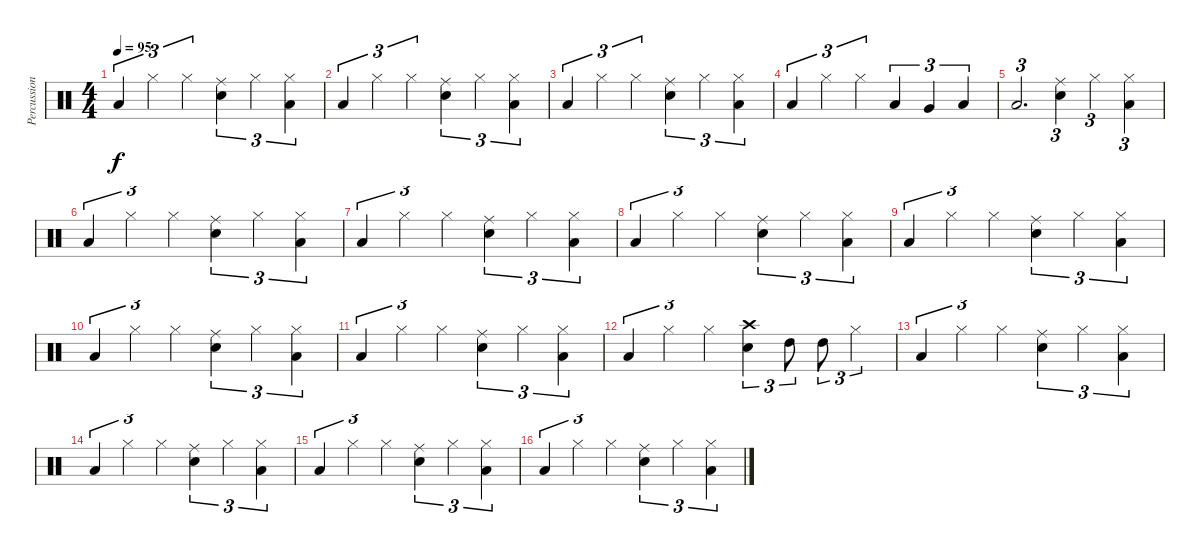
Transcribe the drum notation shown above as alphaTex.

\track ("Percussion" "Percussion") {instrument percussion}
\staff {score}
\articulation defaults
\ts (4 4)
\tempo 95
\clef neutral
\ks c "Low Floor Tom (hit)".4{tu (3 2) dy f} "Hi-Hat (closed)".4{tu (3 2)} "Hi-Hat (closed)".4{tu (3 2)}
("Electric Snare (hit)" "Ride (middle)").4{tu (3 2)} "Hi-Hat (closed)".4{tu (3 2)} ("Hi-Hat (closed)" "Low Floor Tom (hit)").4{tu (3 2)} |
"Low Floor Tom (hit)".4{tu (3 2)} "Hi-Hat (closed)".4{tu (3 2)} "Hi-Hat (closed)".4{tu (3 2)} ("Electric Snare (hit)" "Ride (middle)").4{tu (3 2)} "Hi-Hat (closed)".4{tu (3 2)} ("Hi-Hat (closed)" "Low Floor Tom (hit)").4{tu (3 2)} |
"Low Floor Tom (hit)".4{tu (3 2)} "Hi-Hat (closed)".4{tu (3 2)} "Hi-Hat (closed)".4{tu (3 2)} ("Electric Snare (hit)" "Ride (middle)").4{tu (3 2)} "Hi-Hat (closed)".4{tu (3 2)} ("Hi-Hat (closed)" "Low Floor Tom (hit)").4{tu (3 2)} |
"Low Floor Tom (hit)".4{tu (3 2)} "Hi-Hat (closed)".4{tu (3 2)} "Hi-Hat (closed)".4{tu (3 2)} "Low Tom (hit)".4{tu (3 2)} "Very Low Tom (hit)".4{tu (3 2)} "Low Floor Tom (hit)".4{tu (3 2)} |
"Low Floor Tom (hit)".2{d tu (3 2) volume 2} ("Electric Snare (hit)" "Ride (middle)").4{tu (3 2)} "Hi-Hat (closed)".4{tu (3 2)} ("Hi-Hat (closed)" "Low Floor Tom (hit)").4{tu (3 2)} |
"Low Floor Tom (hit)".4{tu (3 2)} "Hi-Hat (closed)".4{tu (3 2)} "Hi-Hat (closed)".4{tu (3 2)} ("Electric Snare (hit)" "Ride (middle)").4{tu (3 2)} "Hi-Hat (closed)".4{tu (3 2)} ("Hi-Hat (closed)" "Low Floor Tom (hit)").4{tu (3 2)} |
"Low Floor Tom (hit)".4{tu (3 2)} "Hi-Hat (closed)".4{tu (3 2)} "Hi-Hat (closed)".4{tu (3 2)} ("Electric Snare (hit)" "Ride (middle)").4{tu (3 2)} "Hi-Hat (closed)".4{tu (3 2)} ("Hi-Hat (closed)" "Low Floor Tom (hit)").4{tu (3 2)} |
"Low Floor Tom (hit)".4{tu (3 2)} "Hi-Hat (closed)".4{tu (3 2)} "Hi-Hat (closed)".4{tu (3 2)} ("Electric Snare (hit)" "Ride (middle)").4{tu (3 2)} "Hi-Hat (closed)".4{tu (3 2)} ("Hi-Hat (closed)" "Low Floor Tom (hit)").4{tu (3 2)} |
"Low Floor Tom (hit)".4{tu (3 2)} "Hi-Hat (closed)".4{tu (3 2)} "Hi-Hat (closed)".4{tu (3 2)} ("Electric Snare (hit)" "Ride (middle)").4{tu (3 2)} "Hi-Hat (closed)".4{tu (3 2)} ("Hi-Hat (closed)" "Low Floor Tom (hit)").4{tu (3 2)} |
"Low Floor Tom (hit)".4{tu (3 2)} "Hi-Hat (closed)".4{tu (3 2)} "Hi-Hat (closed)".4{tu (3 2)} ("Electric Snare (hit)" "Ride (middle)").4{tu (3 2)} "Hi-Hat (closed)".4{tu (3 2)} ("Hi-Hat (closed)" "Low Floor Tom (hit)").4{tu (3 2)} |
"Low Floor Tom (hit)".4{tu (3 2)} "Hi-Hat (closed)".4{tu (3 2)} "Hi-Hat (closed)".4{tu (3 2)} ("Electric Snare (hit)" "Ride (middle)").4{tu (3 2)} "Hi-Hat (closed)".4{tu (3 2)} ("Hi-Hat (closed)" "Low Floor Tom (hit)").4{tu (3 2)} |
"Low Floor Tom (hit)".4{tu (3 2)} "Hi-Hat (closed)".4{tu (3 2)} "Hi-Hat (closed)".4{tu (3 2)} ("Electric Snare (hit)" "Crash high (hit)").4{tu (3 2)} "High Tom (hit)".8{tu (3 2)} "High Tom (hit)".8{tu (3 2)} "Hi-Hat (closed)".4{tu (3 2)} |
"Low Floor Tom (hit)".4{tu (3 2)} "Hi-Hat (closed)".4{tu (3 2)} "Hi-Hat (closed)".4{tu (3 2)} ("Electric Snare (hit)" "Ride (middle)").4{tu (3 2)} "Hi-Hat (closed)".4{tu (3 2)} ("Hi-Hat (closed)" "Low Floor Tom (hit)").4{tu (3 2)} |
"Low Floor Tom (hit)".4{tu (3 2)} "Hi-Hat (closed)".4{tu (3 2)} "Hi-Hat (closed)".4{tu (3 2)} ("Electric Snare (hit)" "Ride (middle)").4{tu (3 2)} "Hi-Hat (closed)".4{tu (3 2)} ("Hi-Hat (closed)" "Low Floor Tom (hit)").4{tu (3 2)} |
"Low Floor Tom (hit)".4{tu (3 2)} "Hi-Hat (closed)".4{tu (3 2)} "Hi-Hat (closed)".4{tu (3 2)} ("Electric Snare (hit)" "Ride (middle)").4{tu (3 2)} "Hi-Hat (closed)".4{tu (3 2)} ("Hi-Hat (closed)" "Low Floor Tom (hit)").4{tu (3 2)} |
"Low Floor Tom (hit)".4{tu (3 2)} "Hi-Hat (closed)".4{tu (3 2)} "Hi-Hat (closed)".4{tu (3 2)} ("Electric Snare (hit)" "Ride (middle)").4{tu (3 2)} "Hi-Hat (closed)".4{tu (3 2)} ("Hi-Hat (closed)" "Low Floor Tom (hit)").4{tu (3 2)}
